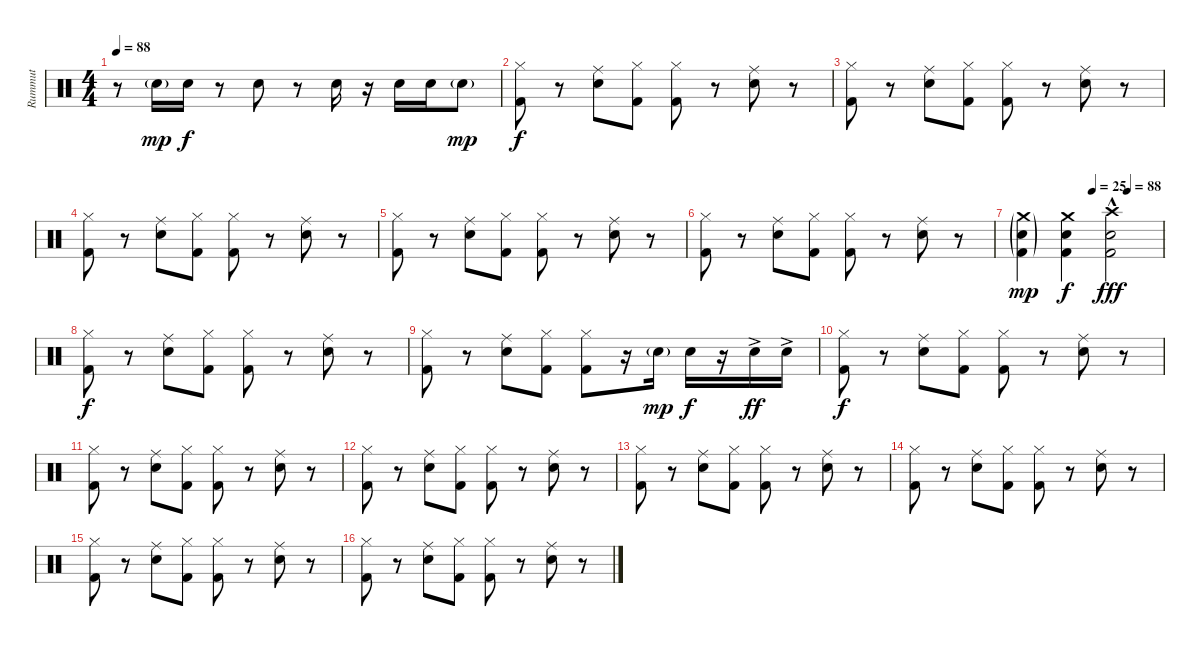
\track ("Rummut" "Rummut") {instrument percussion}
\staff {score}
\articulation defaults
\ts (4 4)
\tempo 88
\clef neutral
\ks c
r.8{dy mp} "Snare (hit) 2"{g}.16 "Snare (hit) 2".16{dy f} r.8 "Snare (hit) 2".8 r.8 "Snare (hit) 2".16 r.16 "Snare (hit) 2".16 "Snare (hit) 2".16 "Snare (hit) 2"{g}.8{dy mp} |
("Hi-Hat (closed)" "Kick (hit) 2").8{dy f} r.8 ("Ride (middle)" "Electric Snare (hit)").8 ("Hi-Hat (closed)" "Kick (hit) 2").8 ("Hi-Hat (closed)" "Kick (hit) 2").8 r.8 ("Ride (middle)" "Electric Snare (hit)").8 r.8 |
("Hi-Hat (closed)" "Kick (hit) 2").8 r.8 ("Ride (middle)" "Electric Snare (hit)").8 ("Hi-Hat (closed)" "Kick (hit) 2").8 ("Hi-Hat (closed)" "Kick (hit) 2").8 r.8 ("Ride (middle)" "Electric Snare (hit)").8 r.8 |
("Hi-Hat (closed)" "Kick (hit) 2").8 r.8 ("Ride (middle)" "Electric Snare (hit)").8 ("Hi-Hat (closed)" "Kick (hit) 2").8 ("Hi-Hat (closed)" "Kick (hit) 2").8 r.8 ("Ride (middle)" "Electric Snare (hit)").8 r.8 |
("Hi-Hat (closed)" "Kick (hit) 2").8 r.8 ("Ride (middle)" "Electric Snare (hit)").8 ("Hi-Hat (closed)" "Kick (hit) 2").8 ("Hi-Hat (closed)" "Kick (hit) 2").8 r.8 ("Ride (middle)" "Electric Snare (hit)").8 r.8 |
("Hi-Hat (closed)" "Kick (hit) 2").8 r.8 ("Ride (middle)" "Electric Snare (hit)").8 ("Hi-Hat (closed)" "Kick (hit) 2").8 ("Hi-Hat (closed)" "Kick (hit) 2").8 r.8 ("Ride (middle)" "Electric Snare (hit)").8 r.8 |
\tempo (25 0.5)
\tempo (88 0.75)
("Crash medium (hit)"{g} "Snare (hit) 2"{g} "Kick (hit) 2"{g}).4{dy mp} ("Crash medium (hit)" "Snare (hit) 2" "Kick (hit) 2").4{dy f} ("Crash high (hit)"{hac} "Snare (hit) 2"{hac} "Kick (hit) 2"{hac}).2{dy fff} |
("Hi-Hat (closed)" "Kick (hit) 2").8{dy f} r.8 ("Ride (middle)" "Electric Snare (hit)").8 ("Hi-Hat (closed)" "Kick (hit) 2").8 ("Hi-Hat (closed)" "Kick (hit) 2").8 r.8 ("Ride (middle)" "Electric Snare (hit)").8 r.8 |
("Hi-Hat (closed)" "Kick (hit) 2").8 r.8 ("Ride (middle)" "Electric Snare (hit)").8 ("Hi-Hat (closed)" "Kick (hit) 2").8 ("Hi-Hat (closed)" "Kick (hit) 2").8 r.16 "Snare (hit) 2"{g}.16{dy mp} "Snare (hit) 2".16{dy f} r.16 "Snare (hit) 2"{ac}.16{dy ff} "Snare (hit) 2"{ac}.16 |
("Hi-Hat (closed)" "Kick (hit) 2").8{dy f} r.8 ("Ride (middle)" "Electric Snare (hit)").8 ("Hi-Hat (closed)" "Kick (hit) 2").8 ("Hi-Hat (closed)" "Kick (hit) 2").8 r.8 ("Ride (middle)" "Electric Snare (hit)").8 r.8 |
("Hi-Hat (closed)" "Kick (hit) 2").8 r.8 ("Ride (middle)" "Electric Snare (hit)").8 ("Hi-Hat (closed)" "Kick (hit) 2").8 ("Hi-Hat (closed)" "Kick (hit) 2").8 r.8 ("Ride (middle)" "Electric Snare (hit)").8 r.8 |
("Hi-Hat (closed)" "Kick (hit) 2").8 r.8 ("Ride (middle)" "Electric Snare (hit)").8 ("Hi-Hat (closed)" "Kick (hit) 2").8 ("Hi-Hat (closed)" "Kick (hit) 2").8 r.8 ("Ride (middle)" "Electric Snare (hit)").8 r.8 |
("Hi-Hat (closed)" "Kick (hit) 2").8 r.8 ("Ride (middle)" "Electric Snare (hit)").8 ("Hi-Hat (closed)" "Kick (hit) 2").8 ("Hi-Hat (closed)" "Kick (hit) 2").8 r.8 ("Ride (middle)" "Electric Snare (hit)").8 r.8 |
("Hi-Hat (closed)" "Kick (hit) 2").8 r.8 ("Ride (middle)" "Electric Snare (hit)").8 ("Hi-Hat (closed)" "Kick (hit) 2").8 ("Hi-Hat (closed)" "Kick (hit) 2").8 r.8 ("Ride (middle)" "Electric Snare (hit)").8 r.8 |
("Hi-Hat (closed)" "Kick (hit) 2").8 r.8 ("Ride (middle)" "Electric Snare (hit)").8 ("Hi-Hat (closed)" "Kick (hit) 2").8 ("Hi-Hat (closed)" "Kick (hit) 2").8 r.8 ("Ride (middle)" "Electric Snare (hit)").8 r.8 |
("Hi-Hat (closed)" "Kick (hit) 2").8 r.8 ("Ride (middle)" "Electric Snare (hit)").8 ("Hi-Hat (closed)" "Kick (hit) 2").8 ("Hi-Hat (closed)" "Kick (hit) 2").8 r.8 ("Ride (middle)" "Electric Snare (hit)").8 r.8
